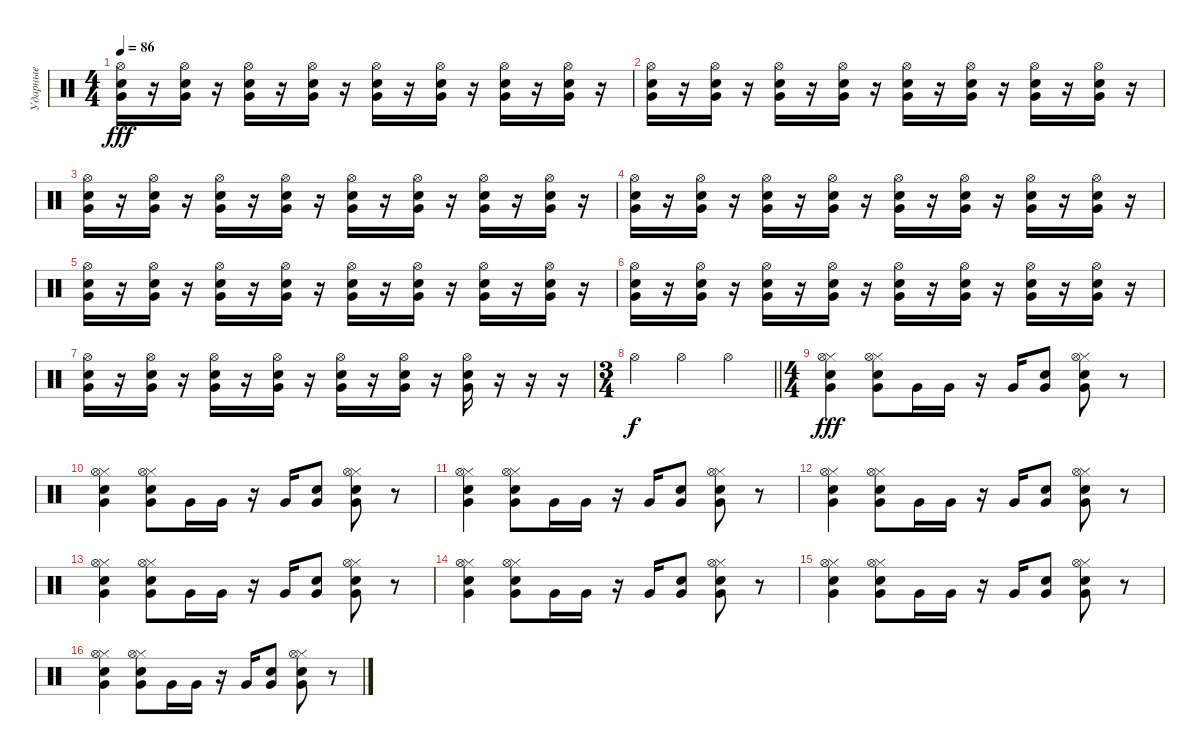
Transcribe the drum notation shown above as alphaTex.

\track ("Ударные" "Ударные") {instrument percussion}
\staff {score}
\articulation defaults
\ts (4 4)
\tempo 86
\clef neutral
\ks c
("Hi-Hat (open)" "Very Low Tom (hit)" "Electric Snare (hit)").16{dy fff} r.16 ("Hi-Hat (open)" "Very Low Tom (hit)" "Electric Snare (hit)").16 r.16 ("Hi-Hat (open)" "Very Low Tom (hit)" "Electric Snare (hit)").16 r.16 ("Hi-Hat (open)" "Very Low Tom (hit)" "Electric Snare (hit)").16 r.16 ("Hi-Hat (open)" "Very Low Tom (hit)" "Electric Snare (hit)").16 r.16 ("Hi-Hat (open)" "Very Low Tom (hit)" "Electric Snare (hit)").16 r.16 ("Hi-Hat (open)" "Very Low Tom (hit)" "Electric Snare (hit)").16 r.16 ("Hi-Hat (open)" "Very Low Tom (hit)" "Electric Snare (hit)").16 r.16 |
("Hi-Hat (open)" "Very Low Tom (hit)" "Electric Snare (hit)").16 r.16 ("Hi-Hat (open)" "Very Low Tom (hit)" "Electric Snare (hit)").16 r.16 ("Hi-Hat (open)" "Very Low Tom (hit)" "Electric Snare (hit)").16 r.16 ("Hi-Hat (open)" "Very Low Tom (hit)" "Electric Snare (hit)").16 r.16 ("Hi-Hat (open)" "Very Low Tom (hit)" "Electric Snare (hit)").16 r.16 ("Hi-Hat (open)" "Very Low Tom (hit)" "Electric Snare (hit)").16 r.16 ("Hi-Hat (open)" "Very Low Tom (hit)" "Electric Snare (hit)").16 r.16 ("Hi-Hat (open)" "Very Low Tom (hit)" "Electric Snare (hit)").16 r.16 |
("Hi-Hat (open)" "Very Low Tom (hit)" "Electric Snare (hit)").16 r.16 ("Hi-Hat (open)" "Very Low Tom (hit)" "Electric Snare (hit)").16 r.16 ("Hi-Hat (open)" "Very Low Tom (hit)" "Electric Snare (hit)").16 r.16 ("Hi-Hat (open)" "Very Low Tom (hit)" "Electric Snare (hit)").16 r.16 ("Hi-Hat (open)" "Very Low Tom (hit)" "Electric Snare (hit)").16 r.16 ("Hi-Hat (open)" "Very Low Tom (hit)" "Electric Snare (hit)").16 r.16 ("Hi-Hat (open)" "Very Low Tom (hit)" "Electric Snare (hit)").16 r.16 ("Hi-Hat (open)" "Very Low Tom (hit)" "Electric Snare (hit)").16 r.16 |
("Hi-Hat (open)" "Very Low Tom (hit)" "Electric Snare (hit)").16 r.16 ("Hi-Hat (open)" "Very Low Tom (hit)" "Electric Snare (hit)").16 r.16 ("Hi-Hat (open)" "Very Low Tom (hit)" "Electric Snare (hit)").16 r.16 ("Hi-Hat (open)" "Very Low Tom (hit)" "Electric Snare (hit)").16 r.16 ("Hi-Hat (open)" "Very Low Tom (hit)" "Electric Snare (hit)").16 r.16 ("Hi-Hat (open)" "Very Low Tom (hit)" "Electric Snare (hit)").16 r.16 ("Hi-Hat (open)" "Very Low Tom (hit)" "Electric Snare (hit)").16 r.16 ("Hi-Hat (open)" "Very Low Tom (hit)" "Electric Snare (hit)").16 r.16 |
("Hi-Hat (open)" "Very Low Tom (hit)" "Electric Snare (hit)").16 r.16 ("Hi-Hat (open)" "Very Low Tom (hit)" "Electric Snare (hit)").16 r.16 ("Hi-Hat (open)" "Very Low Tom (hit)" "Electric Snare (hit)").16 r.16 ("Hi-Hat (open)" "Very Low Tom (hit)" "Electric Snare (hit)").16 r.16 ("Hi-Hat (open)" "Very Low Tom (hit)" "Electric Snare (hit)").16 r.16 ("Hi-Hat (open)" "Very Low Tom (hit)" "Electric Snare (hit)").16 r.16 ("Hi-Hat (open)" "Very Low Tom (hit)" "Electric Snare (hit)").16 r.16 ("Hi-Hat (open)" "Very Low Tom (hit)" "Electric Snare (hit)").16 r.16 |
("Hi-Hat (open)" "Very Low Tom (hit)" "Electric Snare (hit)").16 r.16 ("Hi-Hat (open)" "Very Low Tom (hit)" "Electric Snare (hit)").16 r.16 ("Hi-Hat (open)" "Very Low Tom (hit)" "Electric Snare (hit)").16 r.16 ("Hi-Hat (open)" "Very Low Tom (hit)" "Electric Snare (hit)").16 r.16 ("Hi-Hat (open)" "Very Low Tom (hit)" "Electric Snare (hit)").16 r.16 ("Hi-Hat (open)" "Very Low Tom (hit)" "Electric Snare (hit)").16 r.16 ("Hi-Hat (open)" "Very Low Tom (hit)" "Electric Snare (hit)").16 r.16 ("Hi-Hat (open)" "Very Low Tom (hit)" "Electric Snare (hit)").16 r.16 |
("Hi-Hat (open)" "Very Low Tom (hit)" "Electric Snare (hit)").16 r.16 ("Hi-Hat (open)" "Very Low Tom (hit)" "Electric Snare (hit)").16 r.16 ("Hi-Hat (open)" "Very Low Tom (hit)" "Electric Snare (hit)").16 r.16 ("Hi-Hat (open)" "Very Low Tom (hit)" "Electric Snare (hit)").16 r.16 ("Hi-Hat (open)" "Very Low Tom (hit)" "Electric Snare (hit)").16 r.16 ("Hi-Hat (open)" "Very Low Tom (hit)" "Electric Snare (hit)").16 r.16 ("Hi-Hat (open)" "Very Low Tom (hit)" "Electric Snare (hit)").16 r.16 r.16 r.16 |
\ts (3 4)
\barLineRight lightlight "Hi-Hat (open)".4{dy f} "Hi-Hat (open)".4 "Hi-Hat (open)".4
|
\ts (4 4)
("Very Low Tom (hit)" "Electric Snare (hit)" "Hi-Hat (closed)" "Hi-Hat (open)").4{dy fff} ("Very Low Tom (hit)" "Electric Snare (hit)" "Hi-Hat (closed)" "Hi-Hat (open)").8 "Very Low Tom (hit)".16 "Very Low Tom (hit)".16 r.16 "Very Low Tom (hit)".16 ("Electric Snare (hit)" "Very Low Tom (hit)").8 ("Very Low Tom (hit)" "Electric Snare (hit)" "Hi-Hat (closed)" "Hi-Hat (open)").8 r.8 |
("Very Low Tom (hit)" "Electric Snare (hit)" "Hi-Hat (closed)" "Hi-Hat (open)").4 ("Very Low Tom (hit)" "Electric Snare (hit)" "Hi-Hat (closed)" "Hi-Hat (open)").8 "Very Low Tom (hit)".16 "Very Low Tom (hit)".16 r.16 "Very Low Tom (hit)".16 ("Electric Snare (hit)" "Very Low Tom (hit)").8 ("Very Low Tom (hit)" "Electric Snare (hit)" "Hi-Hat (closed)" "Hi-Hat (open)").8 r.8 |
("Very Low Tom (hit)" "Electric Snare (hit)" "Hi-Hat (closed)" "Hi-Hat (open)").4 ("Very Low Tom (hit)" "Electric Snare (hit)" "Hi-Hat (closed)" "Hi-Hat (open)").8 "Very Low Tom (hit)".16 "Very Low Tom (hit)".16 r.16 "Very Low Tom (hit)".16 ("Electric Snare (hit)" "Very Low Tom (hit)").8 ("Very Low Tom (hit)" "Electric Snare (hit)" "Hi-Hat (closed)" "Hi-Hat (open)").8 r.8 |
("Very Low Tom (hit)" "Electric Snare (hit)" "Hi-Hat (closed)" "Hi-Hat (open)").4 ("Very Low Tom (hit)" "Electric Snare (hit)" "Hi-Hat (closed)" "Hi-Hat (open)").8 "Very Low Tom (hit)".16 "Very Low Tom (hit)".16 r.16 "Very Low Tom (hit)".16 ("Electric Snare (hit)" "Very Low Tom (hit)").8 ("Very Low Tom (hit)" "Electric Snare (hit)" "Hi-Hat (closed)" "Hi-Hat (open)").8 r.8 |
("Very Low Tom (hit)" "Electric Snare (hit)" "Hi-Hat (closed)" "Hi-Hat (open)").4 ("Very Low Tom (hit)" "Electric Snare (hit)" "Hi-Hat (closed)" "Hi-Hat (open)").8 "Very Low Tom (hit)".16 "Very Low Tom (hit)".16 r.16 "Very Low Tom (hit)".16 ("Electric Snare (hit)" "Very Low Tom (hit)").8 ("Very Low Tom (hit)" "Electric Snare (hit)" "Hi-Hat (closed)" "Hi-Hat (open)").8 r.8 |
("Very Low Tom (hit)" "Electric Snare (hit)" "Hi-Hat (closed)" "Hi-Hat (open)").4 ("Very Low Tom (hit)" "Electric Snare (hit)" "Hi-Hat (closed)" "Hi-Hat (open)").8 "Very Low Tom (hit)".16 "Very Low Tom (hit)".16 r.16 "Very Low Tom (hit)".16 ("Electric Snare (hit)" "Very Low Tom (hit)").8 ("Very Low Tom (hit)" "Electric Snare (hit)" "Hi-Hat (closed)" "Hi-Hat (open)").8 r.8 |
("Very Low Tom (hit)" "Electric Snare (hit)" "Hi-Hat (closed)" "Hi-Hat (open)").4 ("Very Low Tom (hit)" "Electric Snare (hit)" "Hi-Hat (closed)" "Hi-Hat (open)").8 "Very Low Tom (hit)".16 "Very Low Tom (hit)".16 r.16 "Very Low Tom (hit)".16 ("Electric Snare (hit)" "Very Low Tom (hit)").8 ("Very Low Tom (hit)" "Electric Snare (hit)" "Hi-Hat (closed)" "Hi-Hat (open)").8 r.8 |
("Very Low Tom (hit)" "Electric Snare (hit)" "Hi-Hat (closed)" "Hi-Hat (open)").4 ("Very Low Tom (hit)" "Electric Snare (hit)" "Hi-Hat (closed)" "Hi-Hat (open)").8 "Very Low Tom (hit)".16 "Very Low Tom (hit)".16 r.16 "Very Low Tom (hit)".16 ("Electric Snare (hit)" "Very Low Tom (hit)").8 ("Very Low Tom (hit)" "Electric Snare (hit)" "Hi-Hat (closed)" "Hi-Hat (open)").8 r.8
